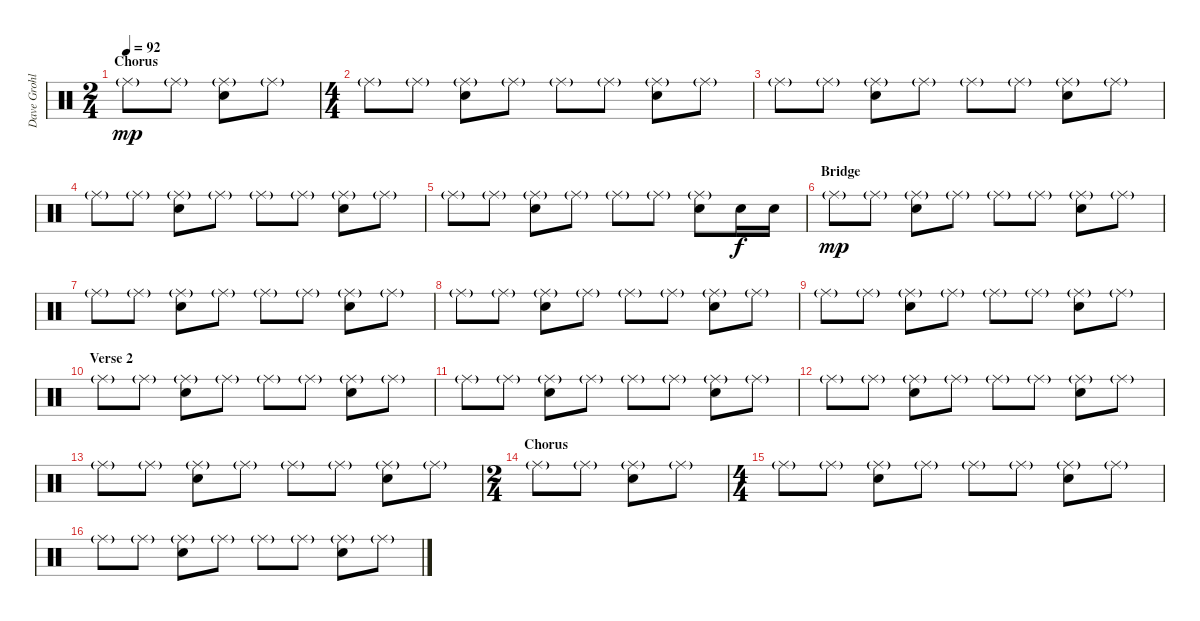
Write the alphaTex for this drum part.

\track ("Dave Grohl - Drums" "Dave Grohl") {instrument percussion}
\staff {score}
\articulation defaults
\ts (2 4)
\section ("" "Chorus")
\tempo 92
\clef neutral
\ks c "Ride (middle)"{g}.8{dy mp} "Ride (middle)"{g}.8
("Ride (middle)"{g} "Electric Snare (hit)").8 "Ride (middle)"{g}.8 |
\ts (4 4)
"Ride (middle)"{g}.8 "Ride (middle)"{g}.8 ("Ride (middle)"{g} "Electric Snare (hit)").8 "Ride (middle)"{g}.8 "Ride (middle)"{g}.8 "Ride (middle)"{g}.8 ("Ride (middle)"{g} "Electric Snare (hit)").8 "Ride (middle)"{g}.8 |
"Ride (middle)"{g}.8 "Ride (middle)"{g}.8 ("Ride (middle)"{g} "Electric Snare (hit)").8 "Ride (middle)"{g}.8 "Ride (middle)"{g}.8 "Ride (middle)"{g}.8 ("Ride (middle)"{g} "Electric Snare (hit)").8 "Ride (middle)"{g}.8 |
"Ride (middle)"{g}.8 "Ride (middle)"{g}.8 ("Ride (middle)"{g} "Electric Snare (hit)").8 "Ride (middle)"{g}.8 "Ride (middle)"{g}.8 "Ride (middle)"{g}.8 ("Ride (middle)"{g} "Electric Snare (hit)").8 "Ride (middle)"{g}.8 |
"Ride (middle)"{g}.8 "Ride (middle)"{g}.8 ("Ride (middle)"{g} "Electric Snare (hit)").8 "Ride (middle)"{g}.8 "Ride (middle)"{g}.8 "Ride (middle)"{g}.8 ("Ride (middle)"{g} "Electric Snare (hit)").8 "Electric Snare (hit)".16{dy f} "Electric Snare (hit)".16 |
\section ("" "Bridge")
"Ride (middle)"{g}.8{dy mp} "Ride (middle)"{g}.8 ("Ride (middle)"{g} "Electric Snare (hit)").8 "Ride (middle)"{g}.8 "Ride (middle)"{g}.8 "Ride (middle)"{g}.8 ("Ride (middle)"{g} "Electric Snare (hit)").8 "Ride (middle)"{g}.8 |
"Ride (middle)"{g}.8 "Ride (middle)"{g}.8 ("Ride (middle)"{g} "Electric Snare (hit)").8 "Ride (middle)"{g}.8 "Ride (middle)"{g}.8 "Ride (middle)"{g}.8 ("Ride (middle)"{g} "Electric Snare (hit)").8 "Ride (middle)"{g}.8 |
"Ride (middle)"{g}.8 "Ride (middle)"{g}.8 ("Ride (middle)"{g} "Electric Snare (hit)").8 "Ride (middle)"{g}.8 "Ride (middle)"{g}.8 "Ride (middle)"{g}.8 ("Ride (middle)"{g} "Electric Snare (hit)").8 "Ride (middle)"{g}.8 |
"Ride (middle)"{g}.8 "Ride (middle)"{g}.8 ("Ride (middle)"{g} "Electric Snare (hit)").8 "Ride (middle)"{g}.8 "Ride (middle)"{g}.8 "Ride (middle)"{g}.8 ("Ride (middle)"{g} "Electric Snare (hit)").8 "Ride (middle)"{g}.8 |
\section ("" "Verse 2")
"Ride (middle)"{g}.8 "Ride (middle)"{g}.8 ("Ride (middle)"{g} "Electric Snare (hit)").8 "Ride (middle)"{g}.8 "Ride (middle)"{g}.8 "Ride (middle)"{g}.8 ("Ride (middle)"{g} "Electric Snare (hit)").8 "Ride (middle)"{g}.8 |
"Ride (middle)"{g}.8 "Ride (middle)"{g}.8 ("Ride (middle)"{g} "Electric Snare (hit)").8 "Ride (middle)"{g}.8 "Ride (middle)"{g}.8 "Ride (middle)"{g}.8 ("Ride (middle)"{g} "Electric Snare (hit)").8 "Ride (middle)"{g}.8 |
"Ride (middle)"{g}.8 "Ride (middle)"{g}.8 ("Ride (middle)"{g} "Electric Snare (hit)").8 "Ride (middle)"{g}.8 "Ride (middle)"{g}.8 "Ride (middle)"{g}.8 ("Ride (middle)"{g} "Electric Snare (hit)").8 "Ride (middle)"{g}.8 |
"Ride (middle)"{g}.8 "Ride (middle)"{g}.8 ("Ride (middle)"{g} "Electric Snare (hit)").8 "Ride (middle)"{g}.8 "Ride (middle)"{g}.8 "Ride (middle)"{g}.8 ("Ride (middle)"{g} "Electric Snare (hit)").8 "Ride (middle)"{g}.8 |
\ts (2 4)
\section ("" "Chorus")
"Ride (middle)"{g}.8 "Ride (middle)"{g}.8 ("Ride (middle)"{g} "Electric Snare (hit)").8 "Ride (middle)"{g}.8 |
\ts (4 4)
"Ride (middle)"{g}.8 "Ride (middle)"{g}.8 ("Ride (middle)"{g} "Electric Snare (hit)").8 "Ride (middle)"{g}.8 "Ride (middle)"{g}.8 "Ride (middle)"{g}.8 ("Ride (middle)"{g} "Electric Snare (hit)").8 "Ride (middle)"{g}.8 |
"Ride (middle)"{g}.8 "Ride (middle)"{g}.8 ("Ride (middle)"{g} "Electric Snare (hit)").8 "Ride (middle)"{g}.8 "Ride (middle)"{g}.8 "Ride (middle)"{g}.8 ("Ride (middle)"{g} "Electric Snare (hit)").8 "Ride (middle)"{g}.8
